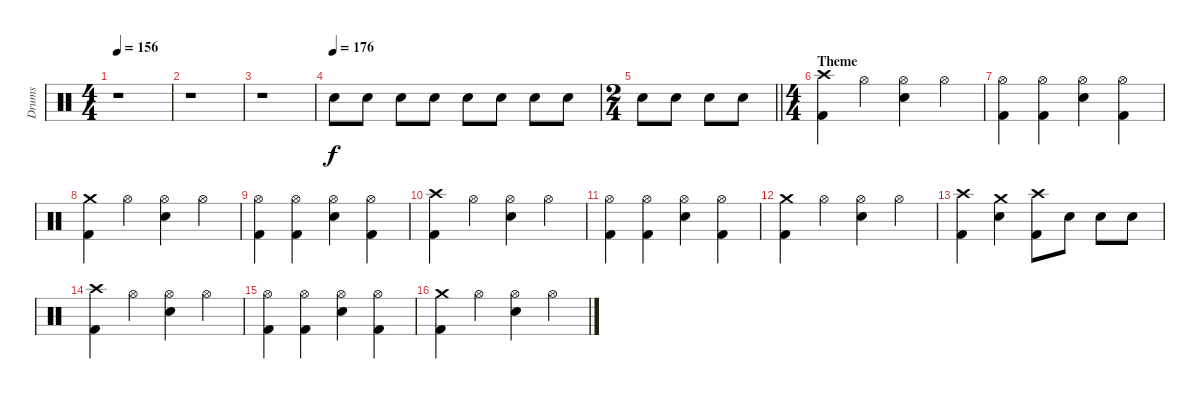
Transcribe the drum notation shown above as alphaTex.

\track ("Drums" "Drums") {instrument percussion}
\staff {score}
\articulation defaults
\ts (4 4)
\tempo 156
\clef neutral
\ks c
r.1{dy f} |
r.1 |
r.1 |
\tempo (176)
"Snare (hit) 2".8 "Snare (hit) 2".8 "Snare (hit) 2".8 "Snare (hit) 2".8 "Snare (hit) 2".8 "Snare (hit) 2".8 "Snare (hit) 2".8 "Snare (hit) 2".8 |
\ts (2 4)
\barLineRight lightlight "Snare (hit) 2".8 "Snare (hit) 2".8 "Snare (hit) 2".8 "Snare (hit) 2".8
|
\ts (4 4)
\section ("" "Theme")
("Crash high (hit)" "Kick (hit) 2").4 "Hi-Hat (open)".4 ("Hi-Hat (open)" "Snare (hit) 2").4 "Hi-Hat (open)".4 |
("Hi-Hat (open)" "Kick (hit) 2").4 ("Hi-Hat (open)" "Kick (hit) 2").4 ("Hi-Hat (open)" "Snare (hit) 2").4 ("Hi-Hat (open)" "Kick (hit) 2").4 |
("Crash medium (hit)" "Kick (hit) 2").4 "Hi-Hat (open)".4 ("Hi-Hat (open)" "Snare (hit) 2").4 "Hi-Hat (open)".4 |
("Hi-Hat (open)" "Kick (hit) 2").4 ("Hi-Hat (open)" "Kick (hit) 2").4 ("Hi-Hat (open)" "Snare (hit) 2").4 ("Hi-Hat (open)" "Kick (hit) 2").4 |
("Crash high (hit)" "Kick (hit) 2").4 "Hi-Hat (open)".4 ("Hi-Hat (open)" "Snare (hit) 2").4 "Hi-Hat (open)".4 |
("Hi-Hat (open)" "Kick (hit) 2").4 ("Hi-Hat (open)" "Kick (hit) 2").4 ("Hi-Hat (open)" "Snare (hit) 2").4 ("Hi-Hat (open)" "Kick (hit) 2").4 |
("Crash medium (hit)" "Kick (hit) 2").4 "Hi-Hat (open)".4 ("Hi-Hat (open)" "Snare (hit) 2").4 "Hi-Hat (open)".4 |
("Crash high (hit)" "Kick (hit) 2").4 ("Crash medium (hit)" "Snare (hit) 2").4 ("Crash high (hit)" "Kick (hit) 2").8 "Snare (hit) 2".8 "Snare (hit) 2".8 "Snare (hit) 2".8 |
("Crash high (hit)" "Kick (hit) 2").4 "Hi-Hat (open)".4 ("Hi-Hat (open)" "Snare (hit) 2").4 "Hi-Hat (open)".4 |
("Hi-Hat (open)" "Kick (hit) 2").4 ("Hi-Hat (open)" "Kick (hit) 2").4 ("Hi-Hat (open)" "Snare (hit) 2").4 ("Hi-Hat (open)" "Kick (hit) 2").4 |
("Crash medium (hit)" "Kick (hit) 2").4 "Hi-Hat (open)".4 ("Hi-Hat (open)" "Snare (hit) 2").4 "Hi-Hat (open)".4
